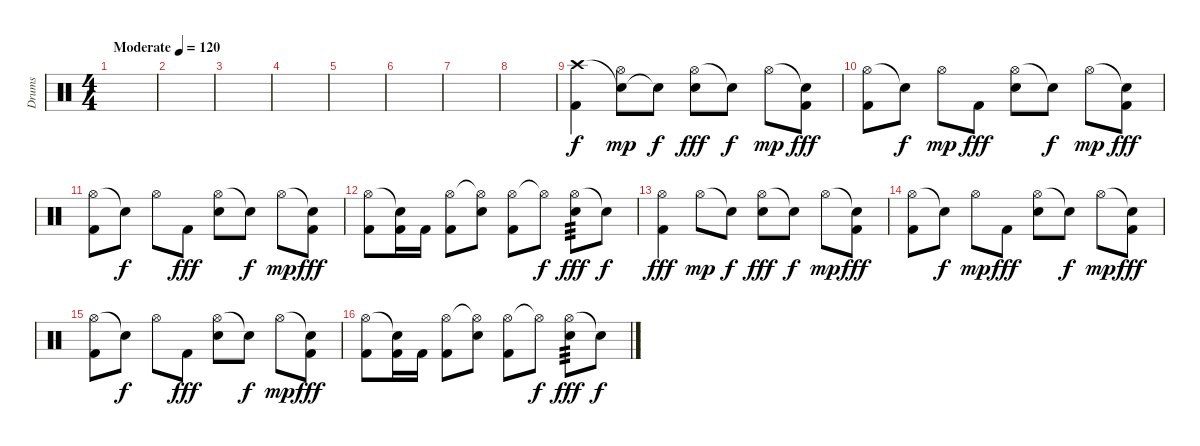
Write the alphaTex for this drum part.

\track ("Drums" "Drums") {instrument percussion}
\staff {score}
\articulation defaults
\ts (4 4)
\tempo (120 "Moderate")
\clef neutral
\ks c
|
|
|
|
|
|
|
|
("Crash high (hit)" "Kick (hit) 2").4 ("Snare (hit)"{t} "Hi-Hat (open)").8{dy mp} "Snare (hit)"{t}.8{dy f} ("Hi-Hat (open)" "Electric Snare (hit)").8{dy fff} "Snare (hit)"{t}.8{dy f} "Hi-Hat (open)".8{dy mp} ("Snare (hit)"{t} "Kick (hit) 2").8{dy fff} |
("Hi-Hat (open)" "Kick (hit) 2").8 "Snare (hit)"{t}.8{dy f} "Hi-Hat (open)".8{dy mp} "Kick (hit) 2".8{dy fff} ("Hi-Hat (open)" "Electric Snare (hit)").8 "Snare (hit)"{t}.8{dy f} "Hi-Hat (open)".8{dy mp} ("Snare (hit)"{t} "Kick (hit) 2").8{dy fff} |
("Hi-Hat (open)" "Kick (hit) 2").8 "Snare (hit)"{t}.8{dy f} "Hi-Hat (open)".8 "Kick (hit) 2".8{dy fff} ("Hi-Hat (open)" "Electric Snare (hit)").8 "Snare (hit)"{t}.8{dy f} "Hi-Hat (open)".8{dy mp} ("Snare (hit)"{t} "Kick (hit) 2").8{dy fff} |
("Hi-Hat (open)" "Kick (hit) 2").8 ("Snare (hit)"{t} "Kick (hit) 2").16 "Kick (hit) 2".16 ("Hi-Hat (open)" "Kick (hit) 2").8 ("Hi-Hat (open)"{t} "Electric Snare (hit)").8 ("Hi-Hat (open)" "Kick (hit) 2").8 "Hi-Hat (open)"{t}.8{dy f} ("Hi-Hat (open)" "Electric Snare (hit)").8{tp 3 dy fff} "Snare (hit)"{t}.8{dy f} |
("Hi-Hat (open)" "Kick (hit) 2").4{dy fff} "Hi-Hat (open)".8{dy mp} "Snare (hit)"{t}.8{dy f} ("Hi-Hat (open)" "Electric Snare (hit)").8{dy fff} "Snare (hit)"{t}.8{dy f} "Hi-Hat (open)".8{dy mp} ("Snare (hit)"{t} "Kick (hit) 2").8{dy fff} |
("Hi-Hat (open)" "Kick (hit) 2").8 "Snare (hit)"{t}.8{dy f} "Hi-Hat (open)".8{dy mp} "Kick (hit) 2".8{dy fff} ("Hi-Hat (open)" "Electric Snare (hit)").8 "Snare (hit)"{t}.8{dy f} "Hi-Hat (open)".8{dy mp} ("Snare (hit)"{t} "Kick (hit) 2").8{dy fff} |
("Hi-Hat (open)" "Kick (hit) 2").8 "Snare (hit)"{t}.8{dy f} "Hi-Hat (open)".8 "Kick (hit) 2".8{dy fff} ("Hi-Hat (open)" "Electric Snare (hit)").8 "Snare (hit)"{t}.8{dy f} "Hi-Hat (open)".8{dy mp} ("Snare (hit)"{t} "Kick (hit) 2").8{dy fff} |
("Hi-Hat (open)" "Kick (hit) 2").8 ("Snare (hit)"{t} "Kick (hit) 2").16 "Kick (hit) 2".16 ("Hi-Hat (open)" "Kick (hit) 2").8 ("Hi-Hat (open)"{t} "Electric Snare (hit)").8 ("Hi-Hat (open)" "Kick (hit) 2").8 "Hi-Hat (open)"{t}.8{dy f} ("Hi-Hat (open)" "Electric Snare (hit)").8{tp 3 dy fff} "Snare (hit)"{t}.8{dy f}
